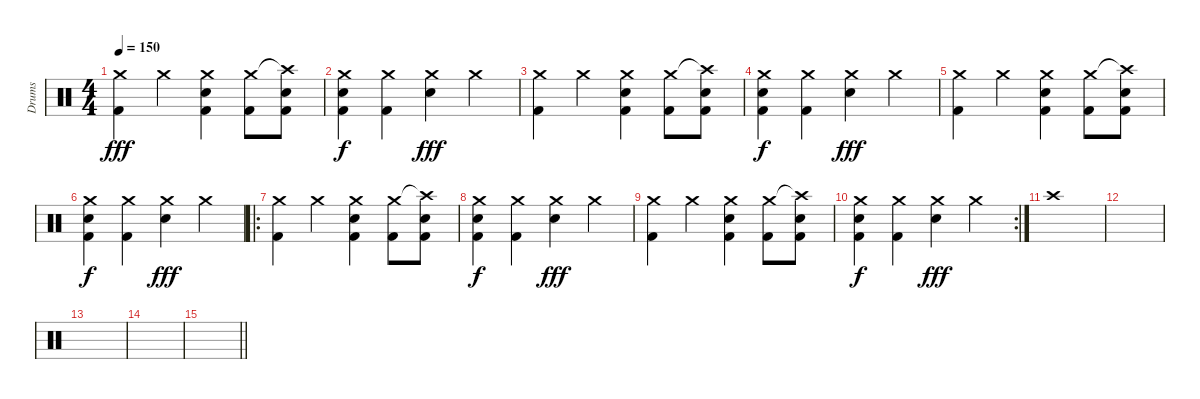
\track ("Drums" "Drums") {instrument percussion}
\staff {score}
\articulation defaults
\ts (4 4)
\tempo 150
\clef neutral
\ks c
("Crash medium (hit)" "Kick (hit) 2").4{dy fff} "Crash medium (hit)".4 ("Crash medium (hit)" "Kick (hit) 2" "Electric Snare (hit)").4 ("Crash medium (hit)" "Kick (hit) 2").8 ("Crash high (hit)"{t} "Kick (hit) 2" "Electric Snare (hit)").8 |
("Crash medium (hit)" "Kick (hit) 2" "Electric Snare (hit)").4{dy f} ("Crash medium (hit)" "Kick (hit) 2").4 ("Crash medium (hit)" "Electric Snare (hit)").4{dy fff} "Crash medium (hit)".4 |
("Crash medium (hit)" "Kick (hit) 2").4 "Crash medium (hit)".4 ("Crash medium (hit)" "Kick (hit) 2" "Electric Snare (hit)").4 ("Crash medium (hit)" "Kick (hit) 2").8 ("Crash high (hit)"{t} "Kick (hit) 2" "Electric Snare (hit)").8 |
("Crash medium (hit)" "Kick (hit) 2" "Electric Snare (hit)").4{dy f} ("Crash medium (hit)" "Kick (hit) 2").4 ("Crash medium (hit)" "Electric Snare (hit)").4{dy fff} "Crash medium (hit)".4 |
("Crash medium (hit)" "Kick (hit) 2").4 "Crash medium (hit)".4 ("Crash medium (hit)" "Kick (hit) 2" "Electric Snare (hit)").4 ("Crash medium (hit)" "Kick (hit) 2").8 ("Crash high (hit)"{t} "Kick (hit) 2" "Electric Snare (hit)").8 |
("Crash medium (hit)" "Kick (hit) 2" "Electric Snare (hit)").4{dy f} ("Crash medium (hit)" "Kick (hit) 2").4 ("Crash medium (hit)" "Electric Snare (hit)").4{dy fff} "Crash medium (hit)".4 |
\ro
("Crash medium (hit)" "Kick (hit) 2").4 "Crash medium (hit)".4 ("Crash medium (hit)" "Kick (hit) 2" "Electric Snare (hit)").4 ("Crash medium (hit)" "Kick (hit) 2").8 ("Crash high (hit)"{t} "Kick (hit) 2" "Electric Snare (hit)").8 |
("Crash medium (hit)" "Kick (hit) 2" "Electric Snare (hit)").4{dy f} ("Crash medium (hit)" "Kick (hit) 2").4 ("Crash medium (hit)" "Electric Snare (hit)").4{dy fff} "Crash medium (hit)".4 |
("Crash medium (hit)" "Kick (hit) 2").4 "Crash medium (hit)".4 ("Crash medium (hit)" "Kick (hit) 2" "Electric Snare (hit)").4 ("Crash medium (hit)" "Kick (hit) 2").8 ("Crash high (hit)"{t} "Kick (hit) 2" "Electric Snare (hit)").8 |
\rc 2
("Crash medium (hit)" "Kick (hit) 2" "Electric Snare (hit)").4{dy f} ("Crash medium (hit)" "Kick (hit) 2").4 ("Crash medium (hit)" "Electric Snare (hit)").4{dy fff} "Crash medium (hit)".4 |
"Crash high (hit)".1 |
|
|
|
\barLineRight lightlight
